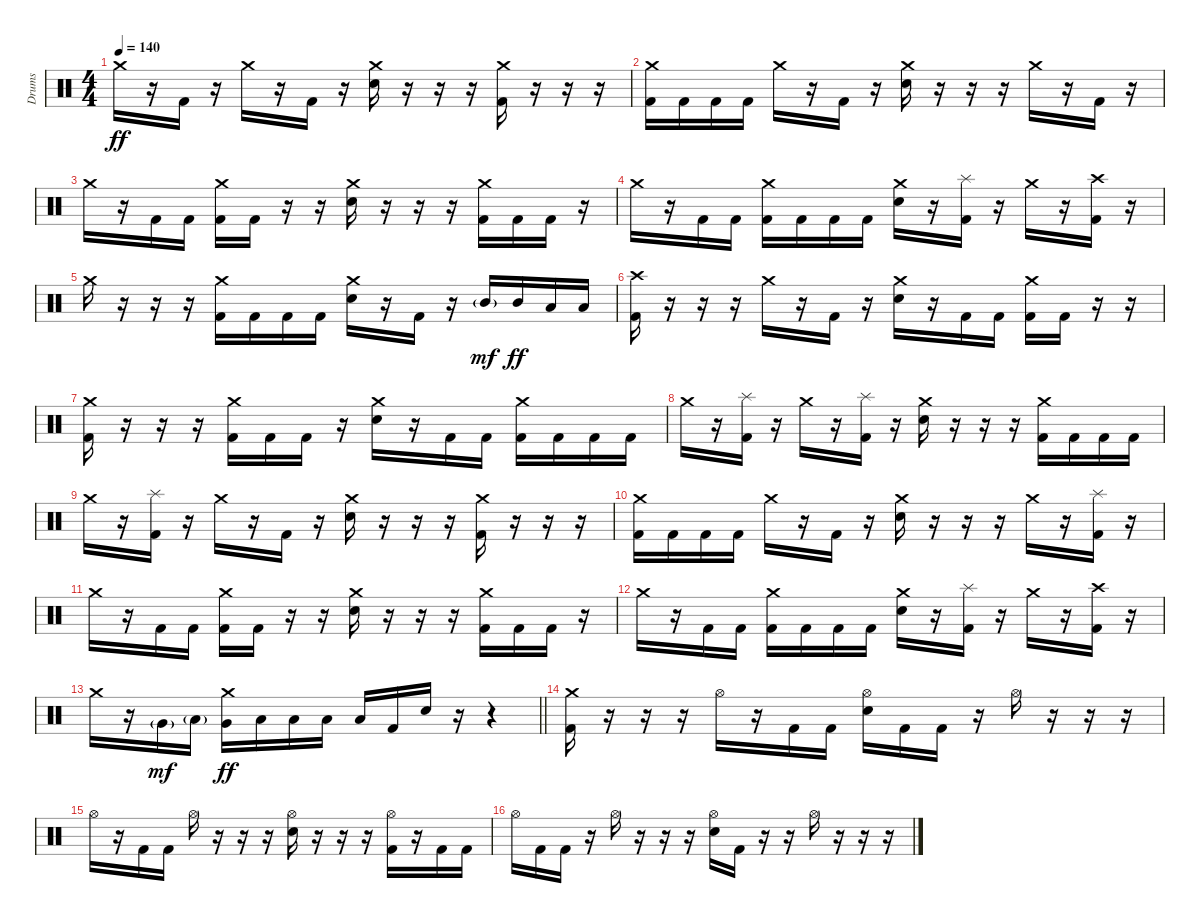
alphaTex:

\track ("Drums" "Drums") {instrument percussion}
\staff {score}
\articulation defaults
\ts (4 4)
\tempo 140
\clef neutral
\ks c "Crash medium (hit)".16{dy ff}
r.16 "Kick (hit) 2".16 r.16 "Crash medium (hit)".16 r.16 "Kick (hit) 2".16 r.16 ("Crash medium (hit)" "Electric Snare (hit)").16 r.16 r.16 r.16 ("Crash medium (hit)" "Kick (hit) 2").16 r.16 r.16 r.16 |
("Crash medium (hit)" "Kick (hit) 2").16 "Kick (hit) 2".16 "Kick (hit) 2".16 "Kick (hit) 2".16 "Crash medium (hit)".16 r.16 "Kick (hit) 2".16 r.16 ("Crash medium (hit)" "Electric Snare (hit)").16 r.16 r.16 r.16 "Crash medium (hit)".16 r.16 "Kick (hit) 2".16 r.16 |
"Crash medium (hit)".16 r.16 "Kick (hit) 2".16 "Kick (hit) 2".16 ("Crash medium (hit)" "Kick (hit) 2").16 "Kick (hit) 2".16 r.16 r.16 ("Crash medium (hit)" "Electric Snare (hit)").16 r.16 r.16 r.16 ("Crash medium (hit)" "Kick (hit) 2").16 "Kick (hit) 2".16 "Kick (hit) 2".16 r.16 |
"Crash medium (hit)".16 r.16 "Kick (hit) 2".16 "Kick (hit) 2".16 ("Crash medium (hit)" "Kick (hit) 2").16 "Kick (hit) 2".16 "Kick (hit) 2".16 "Kick (hit) 2".16 ("Crash medium (hit)" "Electric Snare (hit)").16 r.16 ("Splash (hit)" "Kick (hit) 2").16 r.16 "Crash medium (hit)".16 r.16 ("Crash high (hit)" "Kick (hit) 2").16 r.16 |
"Crash medium (hit)".16 r.16 r.16 r.16 ("Crash medium (hit)" "Kick (hit) 2").16 "Kick (hit) 2".16 "Kick (hit) 2".16 "Kick (hit) 2".16 ("Crash medium (hit)" "Electric Snare (hit)").16 r.16 "Kick (hit) 2".16 r.16 "Mid Tom (hit)"{g}.16{dy mf} "Mid Tom (hit)".16{dy ff} "Low Tom (hit)".16 "Low Floor Tom (hit)".16 |
("Crash high (hit)" "Kick (hit) 2").16 r.16 r.16 r.16 "Crash medium (hit)".16 r.16 "Kick (hit) 2".16 r.16 ("Crash medium (hit)" "Electric Snare (hit)").16 r.16 "Kick (hit) 2".16 "Kick (hit) 2".16 ("Crash medium (hit)" "Kick (hit) 2").16 "Kick (hit) 2".16 r.16 r.16 |
("Crash medium (hit)" "Kick (hit) 2").16 r.16 r.16 r.16 ("Crash medium (hit)" "Kick (hit) 2").16 "Kick (hit) 2".16 "Kick (hit) 2".16 r.16 ("Crash medium (hit)" "Electric Snare (hit)").16 r.16 "Kick (hit) 2".16 "Kick (hit) 2".16 ("Crash medium (hit)" "Kick (hit) 2").16 "Kick (hit) 2".16 "Kick (hit) 2".16 "Kick (hit) 2".16 |
"Crash medium (hit)".16 r.16 ("Splash (hit)" "Kick (hit) 2").16 r.16 "Crash medium (hit)".16 r.16 ("Splash (hit)" "Kick (hit) 2").16 r.16 ("Crash medium (hit)" "Electric Snare (hit)").16 r.16 r.16 r.16 ("Crash medium (hit)" "Kick (hit) 2").16 "Kick (hit) 2".16 "Kick (hit) 2".16 "Kick (hit) 2".16 |
"Crash medium (hit)".16 r.16 ("Splash (hit)" "Kick (hit) 2").16 r.16 "Crash medium (hit)".16 r.16 "Kick (hit) 2".16 r.16 ("Crash medium (hit)" "Electric Snare (hit)").16 r.16 r.16 r.16 ("Crash medium (hit)" "Kick (hit) 2").16 r.16 r.16 r.16 |
("Crash medium (hit)" "Kick (hit) 2").16 "Kick (hit) 2".16 "Kick (hit) 2".16 "Kick (hit) 2".16 "Crash medium (hit)".16 r.16 "Kick (hit) 2".16 r.16 ("Crash medium (hit)" "Electric Snare (hit)").16 r.16 r.16 r.16 "Crash medium (hit)".16 r.16 ("Splash (hit)" "Kick (hit) 2").16 r.16 |
"Crash medium (hit)".16 r.16 "Kick (hit) 2".16 "Kick (hit) 2".16 ("Crash medium (hit)" "Kick (hit) 2").16 "Kick (hit) 2".16 r.16 r.16 ("Crash medium (hit)" "Electric Snare (hit)").16 r.16 r.16 r.16 ("Crash medium (hit)" "Kick (hit) 2").16 "Kick (hit) 2".16 "Kick (hit) 2".16 r.16 |
"Crash medium (hit)".16 r.16 "Kick (hit) 2".16 "Kick (hit) 2".16 ("Crash medium (hit)" "Kick (hit) 2").16 "Kick (hit) 2".16 "Kick (hit) 2".16 "Kick (hit) 2".16 ("Crash medium (hit)" "Electric Snare (hit)").16 r.16 ("Splash (hit)" "Kick (hit) 2").16 r.16 "Crash medium (hit)".16 r.16 ("Crash high (hit)" "Kick (hit) 2").16 r.16 |
\barLineRight lightlight "Crash medium (hit)".16
r.16 "Very Low Tom (hit)"{g}.16{dy mf} "Low Floor Tom (hit)"{g}.16 ("Crash medium (hit)" "Very Low Tom (hit)").16{dy ff} "Low Tom (hit)".16 "Low Tom (hit)".16 "Low Tom (hit)".16 "Low Tom (hit)".16 "Kick (hit) 2".16 "Electric Snare (hit)".16 r.16 r.4 |
\section ("" "")
("Crash medium (hit)" "Kick (hit) 2").16 r.16 r.16 r.16 "Hi-Hat (open)".16 r.16 "Kick (hit) 2".16 "Kick (hit) 2".16 ("Hi-Hat (open)" "Electric Snare (hit)").16 "Kick (hit) 2".16 "Kick (hit) 2".16 r.16 "Hi-Hat (open)".16 r.16 r.16 r.16 |
"Hi-Hat (open)".16 r.16 "Kick (hit) 2".16 "Kick (hit) 2".16 "Hi-Hat (open)".16 r.16 r.16 r.16 ("Hi-Hat (open)" "Electric Snare (hit)").16 r.16 r.16 r.16 ("Hi-Hat (open)" "Kick (hit) 2").16 r.16 "Kick (hit) 2".16 "Kick (hit) 2".16 |
"Hi-Hat (open)".16 "Kick (hit) 2".16 "Kick (hit) 2".16 r.16 "Hi-Hat (open)".16 r.16 r.16 r.16 ("Hi-Hat (open)" "Electric Snare (hit)").16 "Kick (hit) 2".16 r.16 r.16 "Hi-Hat (open)".16 r.16 r.16 r.16
